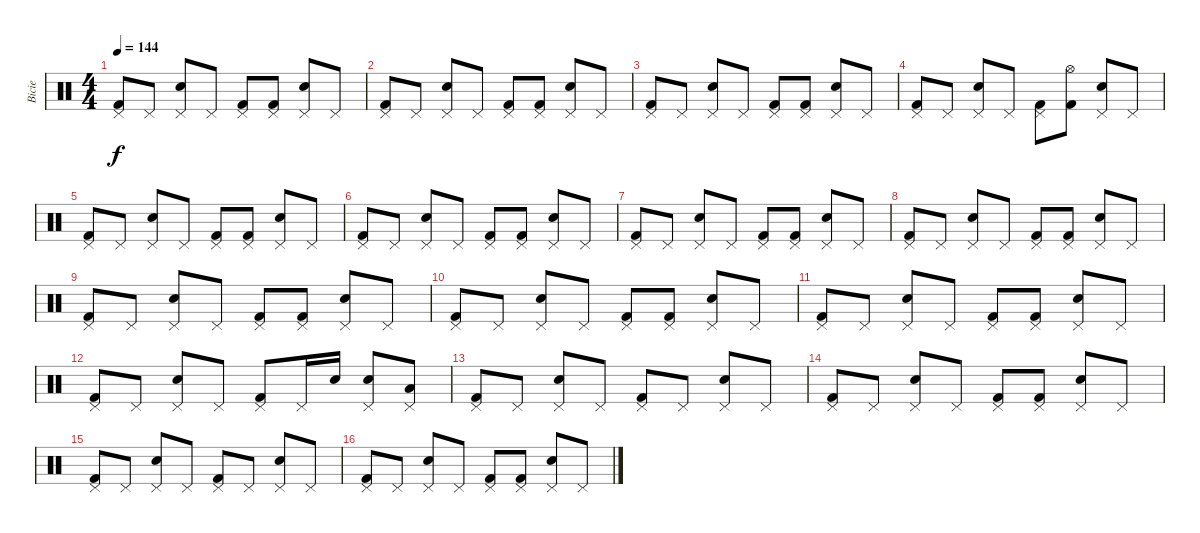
\track ("Bicie" "Bicie") {instrument percussion}
\staff {score}
\articulation defaults
\ts (4 4)
\tempo 144
\clef neutral
\ks c
("Pedal Hi-Hat (hit)" "Kick (hit) 2").8{dy f} "Pedal Hi-Hat (hit)".8 ("Pedal Hi-Hat (hit)" "Snare (hit) 2").8 "Pedal Hi-Hat (hit)".8 ("Pedal Hi-Hat (hit)" "Kick (hit) 2").8 ("Pedal Hi-Hat (hit)" "Kick (hit) 2").8 ("Pedal Hi-Hat (hit)" "Snare (hit) 2").8 "Pedal Hi-Hat (hit)".8 |
("Pedal Hi-Hat (hit)" "Kick (hit) 2").8 "Pedal Hi-Hat (hit)".8 ("Pedal Hi-Hat (hit)" "Snare (hit) 2").8 "Pedal Hi-Hat (hit)".8 ("Pedal Hi-Hat (hit)" "Kick (hit) 2").8 ("Pedal Hi-Hat (hit)" "Kick (hit) 2").8 ("Pedal Hi-Hat (hit)" "Snare (hit) 2").8 "Pedal Hi-Hat (hit)".8 |
("Pedal Hi-Hat (hit)" "Kick (hit) 2").8 "Pedal Hi-Hat (hit)".8 ("Pedal Hi-Hat (hit)" "Snare (hit) 2").8 "Pedal Hi-Hat (hit)".8 ("Pedal Hi-Hat (hit)" "Kick (hit) 2").8 ("Pedal Hi-Hat (hit)" "Kick (hit) 2").8 ("Pedal Hi-Hat (hit)" "Snare (hit) 2").8 "Pedal Hi-Hat (hit)".8 |
("Pedal Hi-Hat (hit)" "Kick (hit) 2").8 "Pedal Hi-Hat (hit)".8 ("Pedal Hi-Hat (hit)" "Snare (hit) 2").8 "Pedal Hi-Hat (hit)".8 ("Pedal Hi-Hat (hit)" "Kick (hit) 2").8 ("Hi-Hat (open)" "Kick (hit) 2").8 ("Pedal Hi-Hat (hit)" "Snare (hit) 2").8 "Pedal Hi-Hat (hit)".8 |
("Pedal Hi-Hat (hit)" "Kick (hit) 2").8 "Pedal Hi-Hat (hit)".8 ("Pedal Hi-Hat (hit)" "Snare (hit) 2").8 "Pedal Hi-Hat (hit)".8 ("Pedal Hi-Hat (hit)" "Kick (hit) 2").8 ("Pedal Hi-Hat (hit)" "Kick (hit) 2").8 ("Pedal Hi-Hat (hit)" "Snare (hit) 2").8 "Pedal Hi-Hat (hit)".8 |
("Pedal Hi-Hat (hit)" "Kick (hit) 2").8 "Pedal Hi-Hat (hit)".8 ("Pedal Hi-Hat (hit)" "Snare (hit) 2").8 "Pedal Hi-Hat (hit)".8 ("Pedal Hi-Hat (hit)" "Kick (hit) 2").8 ("Pedal Hi-Hat (hit)" "Kick (hit) 2").8 ("Pedal Hi-Hat (hit)" "Snare (hit) 2").8 "Pedal Hi-Hat (hit)".8 |
("Pedal Hi-Hat (hit)" "Kick (hit) 2").8 "Pedal Hi-Hat (hit)".8 ("Pedal Hi-Hat (hit)" "Snare (hit) 2").8 "Pedal Hi-Hat (hit)".8 ("Pedal Hi-Hat (hit)" "Kick (hit) 2").8 ("Pedal Hi-Hat (hit)" "Kick (hit) 2").8 ("Pedal Hi-Hat (hit)" "Snare (hit) 2").8 "Pedal Hi-Hat (hit)".8 |
("Pedal Hi-Hat (hit)" "Kick (hit) 2").8 "Pedal Hi-Hat (hit)".8 ("Pedal Hi-Hat (hit)" "Snare (hit) 2").8 "Pedal Hi-Hat (hit)".8 ("Pedal Hi-Hat (hit)" "Kick (hit) 2").8 ("Pedal Hi-Hat (hit)" "Kick (hit) 2").8 ("Pedal Hi-Hat (hit)" "Snare (hit) 2").8 "Pedal Hi-Hat (hit)".8 |
("Pedal Hi-Hat (hit)" "Kick (hit) 2").8 "Pedal Hi-Hat (hit)".8 ("Pedal Hi-Hat (hit)" "Snare (hit) 2").8 "Pedal Hi-Hat (hit)".8 ("Pedal Hi-Hat (hit)" "Kick (hit) 2").8 ("Pedal Hi-Hat (hit)" "Kick (hit) 2").8 ("Pedal Hi-Hat (hit)" "Snare (hit) 2").8 "Pedal Hi-Hat (hit)".8 |
("Pedal Hi-Hat (hit)" "Kick (hit) 2").8 "Pedal Hi-Hat (hit)".8 ("Pedal Hi-Hat (hit)" "Snare (hit) 2").8 "Pedal Hi-Hat (hit)".8 ("Pedal Hi-Hat (hit)" "Kick (hit) 2").8 ("Pedal Hi-Hat (hit)" "Kick (hit) 2").8 ("Pedal Hi-Hat (hit)" "Snare (hit) 2").8 "Pedal Hi-Hat (hit)".8 |
("Pedal Hi-Hat (hit)" "Kick (hit) 2").8 "Pedal Hi-Hat (hit)".8 ("Pedal Hi-Hat (hit)" "Snare (hit) 2").8 "Pedal Hi-Hat (hit)".8 ("Pedal Hi-Hat (hit)" "Kick (hit) 2").8 ("Pedal Hi-Hat (hit)" "Kick (hit) 2").8 ("Pedal Hi-Hat (hit)" "Snare (hit) 2").8 "Pedal Hi-Hat (hit)".8 |
("Pedal Hi-Hat (hit)" "Kick (hit) 2").8 "Pedal Hi-Hat (hit)".8 ("Pedal Hi-Hat (hit)" "Snare (hit) 2").8 "Pedal Hi-Hat (hit)".8 ("Pedal Hi-Hat (hit)" "Kick (hit) 2").8 "Pedal Hi-Hat (hit)".16 "Snare (hit) 2".16 ("Pedal Hi-Hat (hit)" "Snare (hit) 2").8 ("Pedal Hi-Hat (hit)" "Low Tom (hit)").8 |
("Pedal Hi-Hat (hit)" "Kick (hit) 2").8 "Pedal Hi-Hat (hit)".8 ("Pedal Hi-Hat (hit)" "Snare (hit) 2").8 "Pedal Hi-Hat (hit)".8 ("Pedal Hi-Hat (hit)" "Kick (hit) 2").8 "Pedal Hi-Hat (hit)".8 ("Pedal Hi-Hat (hit)" "Snare (hit) 2").8 "Pedal Hi-Hat (hit)".8 |
("Pedal Hi-Hat (hit)" "Kick (hit) 2").8 "Pedal Hi-Hat (hit)".8 ("Pedal Hi-Hat (hit)" "Snare (hit) 2").8 "Pedal Hi-Hat (hit)".8 ("Pedal Hi-Hat (hit)" "Kick (hit) 2").8 ("Pedal Hi-Hat (hit)" "Kick (hit) 2").8 ("Pedal Hi-Hat (hit)" "Snare (hit) 2").8 "Pedal Hi-Hat (hit)".8 |
("Pedal Hi-Hat (hit)" "Kick (hit) 2").8 "Pedal Hi-Hat (hit)".8 ("Pedal Hi-Hat (hit)" "Snare (hit) 2").8 "Pedal Hi-Hat (hit)".8 ("Pedal Hi-Hat (hit)" "Kick (hit) 2").8 "Pedal Hi-Hat (hit)".8 ("Pedal Hi-Hat (hit)" "Snare (hit) 2").8 "Pedal Hi-Hat (hit)".8 |
("Pedal Hi-Hat (hit)" "Kick (hit) 2").8 "Pedal Hi-Hat (hit)".8 ("Pedal Hi-Hat (hit)" "Snare (hit) 2").8 "Pedal Hi-Hat (hit)".8 ("Pedal Hi-Hat (hit)" "Kick (hit) 2").8 ("Pedal Hi-Hat (hit)" "Kick (hit) 2").8 ("Pedal Hi-Hat (hit)" "Snare (hit) 2").8 "Pedal Hi-Hat (hit)".8
